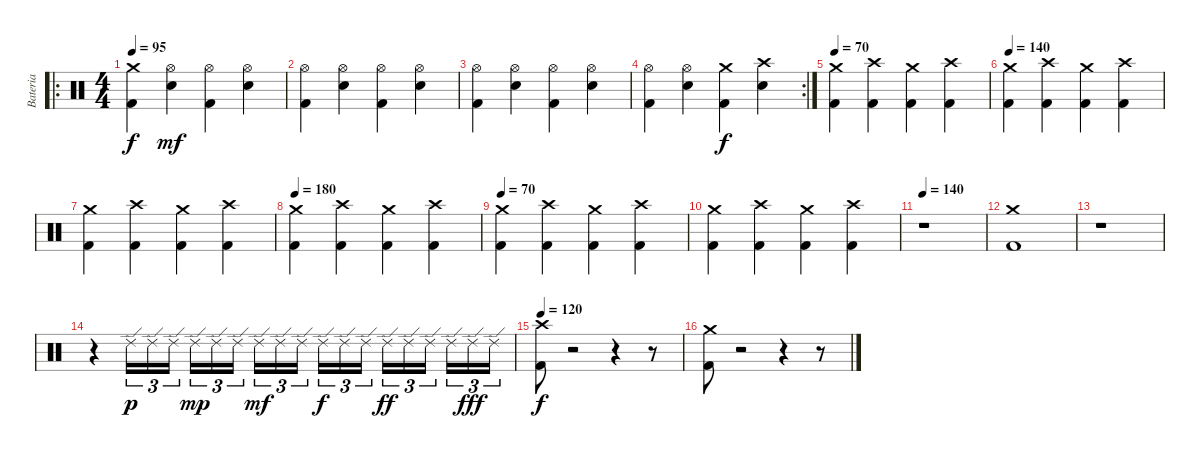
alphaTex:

\track ("Bateria" "Bateria") {instrument percussion}
\staff {score}
\articulation defaults
\ro
\ts (4 4)
\tempo 95
\clef neutral
\ks c
("Crash medium (hit)" "Kick (hit) 2").4{dy f} ("Hi-Hat (open)" "Snare (hit) 2").4{dy mf} ("Hi-Hat (open)" "Kick (hit) 2").4 ("Hi-Hat (open)" "Snare (hit) 2").4 |
("Hi-Hat (open)" "Kick (hit) 2").4 ("Hi-Hat (open)" "Snare (hit) 2").4 ("Hi-Hat (open)" "Kick (hit) 2").4 ("Hi-Hat (open)" "Snare (hit) 2").4 |
("Hi-Hat (open)" "Kick (hit) 2").4 ("Hi-Hat (open)" "Snare (hit) 2").4 ("Hi-Hat (open)" "Kick (hit) 2").4 ("Hi-Hat (open)" "Snare (hit) 2").4 |
\rc 2
("Hi-Hat (open)" "Kick (hit) 2").4 ("Hi-Hat (open)" "Snare (hit) 2").4 ("Crash medium (hit)" "Kick (hit) 2").4{dy f} ("Crash high (hit)" "Snare (hit) 2").4 |
\tempo 70
("Crash medium (hit)" "Kick (hit) 2").4 ("Crash high (hit)" "Kick (hit) 2").4 ("Crash medium (hit)" "Kick (hit) 2").4 ("Crash high (hit)" "Kick (hit) 2").4 |
\tempo 140
("Crash medium (hit)" "Kick (hit) 2").4 ("Crash high (hit)" "Kick (hit) 2").4 ("Crash medium (hit)" "Kick (hit) 2").4 ("Crash high (hit)" "Kick (hit) 2").4 |
("Crash medium (hit)" "Kick (hit) 2").4 ("Crash high (hit)" "Kick (hit) 2").4 ("Crash medium (hit)" "Kick (hit) 2").4 ("Crash high (hit)" "Kick (hit) 2").4 |
\tempo 180
("Crash medium (hit)" "Kick (hit) 2").4 ("Crash high (hit)" "Kick (hit) 2").4 ("Crash medium (hit)" "Kick (hit) 2").4 ("Crash high (hit)" "Kick (hit) 2").4 |
\tempo 70
("Crash medium (hit)" "Kick (hit) 2").4 ("Crash high (hit)" "Kick (hit) 2").4 ("Crash medium (hit)" "Kick (hit) 2").4 ("Crash high (hit)" "Kick (hit) 2").4 |
("Crash medium (hit)" "Kick (hit) 2").4 ("Crash high (hit)" "Kick (hit) 2").4 ("Crash medium (hit)" "Kick (hit) 2").4 ("Crash high (hit)" "Kick (hit) 2").4 |
\tempo 140
r.1 |
("Crash medium (hit)" "Kick (hit) 2").1 |
r.1 |
r.4 "Ride (edge) 2".16{tu (3 2) dy p} "Ride (edge) 2".16{tu (3 2)} "Ride (edge) 2".16{tu (3 2)} "Ride (edge) 2".16{tu (3 2) dy mp} "Ride (edge) 2".16{tu (3 2)} "Ride (edge) 2".16{tu (3 2)} "Ride (edge) 2".16{tu (3 2) dy mf} "Ride (edge) 2".16{tu (3 2)} "Ride (edge) 2".16{tu (3 2)} "Ride (edge) 2".16{tu (3 2) dy f} "Ride (edge) 2".16{tu (3 2)} "Ride (edge) 2".16{tu (3 2)} "Ride (edge) 2".16{tu (3 2) dy ff} "Ride (edge) 2".16{tu (3 2)} "Ride (edge) 2".16{tu (3 2)} "Ride (edge) 2".16{tu (3 2)} "Ride (edge) 2".16{tu (3 2) dy fff} "Ride (edge) 2".16{tu (3 2)} |
\tempo 120
("Crash high (hit)" "Kick (hit) 2").8{dy f} r.2 r.4 r.8 |
("Crash medium (hit)" "Kick (hit) 2").8 r.2 r.4 r.8
